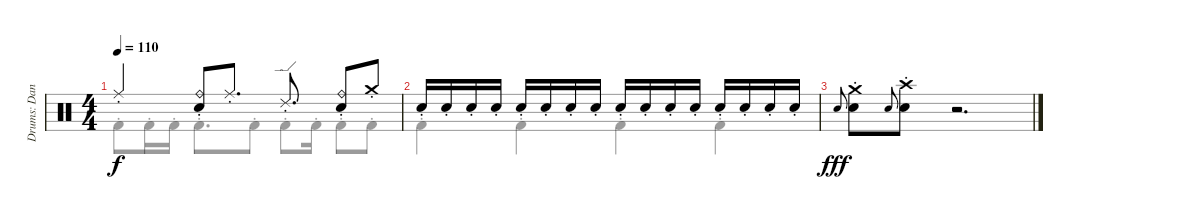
\track ("Drums: Dana" "Drums: Dan") {instrument percussion}
\staff {score}
\articulation defaults
\voice
\ts (4 4)
\tempo 110
\clef neutral
\ks c "Ride (middle)"{st}.4{dy f}
("Ride (bell)"{st} "Snare (hit) 2"{st}).8 "Ride (middle)"{st}.8{d} "Ride (edge) 2"{st}.8{d} ("Ride (bell)"{st} "Snare (hit) 2"{st}).8 "Crash medium (hit)"{st}.8 |
"Electric Snare (hit)"{st}.16 "Electric Snare (hit)"{st}.16 "Electric Snare (hit)"{st}.16 "Electric Snare (hit)"{st}.16 "Electric Snare (hit)"{st}.16 "Electric Snare (hit)"{st}.16 "Electric Snare (hit)"{st}.16 "Electric Snare (hit)"{st}.16 "Electric Snare (hit)"{st}.16 "Electric Snare (hit)"{st}.16 "Electric Snare (hit)"{st}.16 "Electric Snare (hit)"{st}.16 "Electric Snare (hit)"{st}.16 "Electric Snare (hit)"{st}.16 "Electric Snare (hit)"{st}.16 "Electric Snare (hit)"{st}.16 |
"Electric Snare (hit)".8{gr onbeat dy fff} ("Crash medium (hit)"{st} "Snare (hit) 2"{st}).8 "Electric Snare (hit)".8{gr onbeat} ("Crash high (hit)"{st} "Snare (hit) 2"{st}).8 r.2{d} |
|
|
|
\voice
\clef neutral
\ottava regular
\simile none
\ks c "Kick (hit) 2"{st}.8{dy f} "Kick (hit) 2"{st}.16 "Kick (hit) 2"{st}.16 "Kick (hit) 2"{st}.8{d} "Kick (hit) 2"{st}.8 "Kick (hit) 2"{st}.8 "Kick (hit) 2"{st}.16 "Kick (hit) 2"{st}.8 "Kick (hit) 2"{st}.8
|
"Kick (hit) 2"{st}.4 "Kick (hit) 2"{st}.4 "Kick (hit) 2"{st}.4 "Kick (hit) 2"{st}.4 |
|
|
|
|
